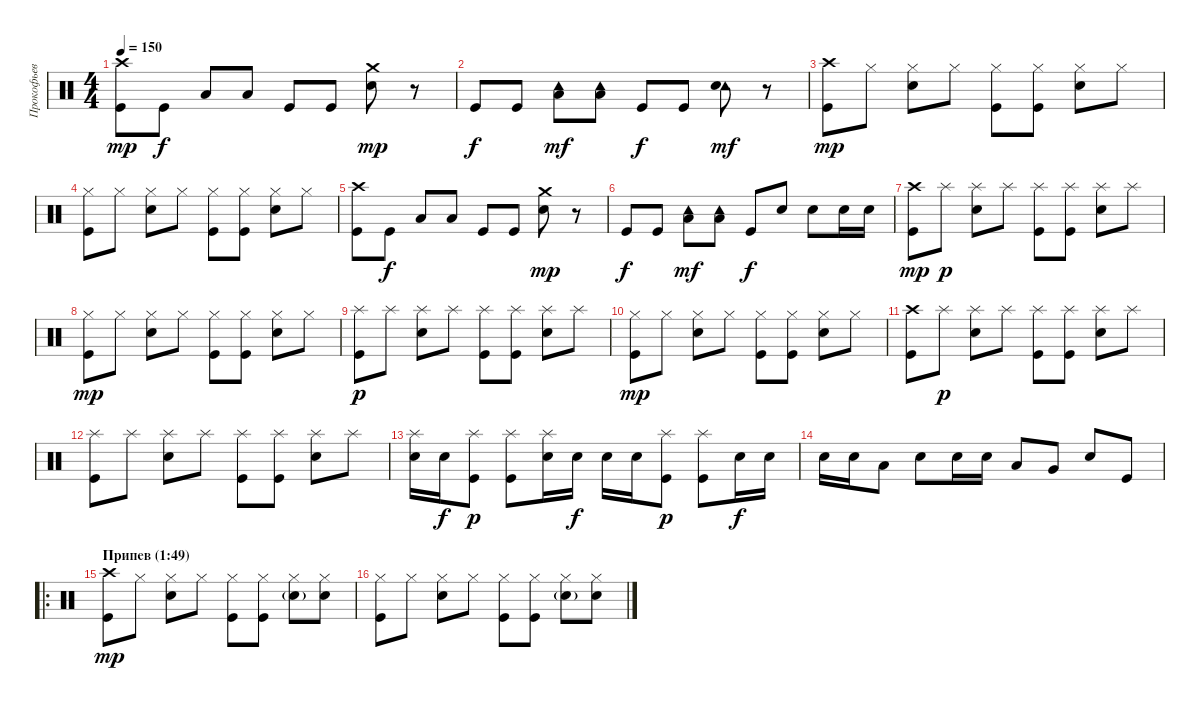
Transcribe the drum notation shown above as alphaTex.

\track ("Прокофьев (Барабаны)" "Прокофьев ") {instrument percussion}
\staff {score}
\articulation defaults
\ts (4 4)
\tempo 150
\clef neutral
\ks c
("Crash high (hit)" "Kick (hit)").8{dy mp} "Kick (hit)".8{dy f} "Low Tom (hit)".8 "Low Tom (hit)".8 "Kick (hit)".8 "Kick (hit)".8 ("Crash medium (hit)" "Electric Snare (hit)").8{dy mp} r.8 |
"Kick (hit)".8{dy f} "Kick (hit)".8 ("Tambourine (hit)" "Low Tom (hit)").8{dy mf} ("Tambourine (hit)" "Low Tom (hit)").8 "Kick (hit)".8{dy f} "Kick (hit)".8 ("Tambourine (hit)" "Electric Snare (hit)").8{dy mf} r.8 |
("Crash high (hit)" "Kick (hit)").8{dy mp} "Hi-Hat (closed)".8 ("Hi-Hat (closed)" "Electric Snare (hit)").8 "Hi-Hat (closed)".8 ("Hi-Hat (closed)" "Kick (hit)").8 ("Hi-Hat (closed)" "Kick (hit)").8 ("Hi-Hat (closed)" "Electric Snare (hit)").8 "Hi-Hat (closed)".8 |
("Hi-Hat (closed)" "Kick (hit)").8 "Hi-Hat (closed)".8 ("Hi-Hat (closed)" "Electric Snare (hit)").8 "Hi-Hat (closed)".8 ("Hi-Hat (closed)" "Kick (hit)").8 ("Hi-Hat (closed)" "Kick (hit)").8 ("Hi-Hat (closed)" "Electric Snare (hit)").8 "Hi-Hat (closed)".8 |
("Crash high (hit)" "Kick (hit)").8 "Kick (hit)".8{dy f} "Low Tom (hit)".8 "Low Tom (hit)".8 "Kick (hit)".8 "Kick (hit)".8 ("Crash medium (hit)" "Electric Snare (hit)").8{dy mp} r.8 |
"Kick (hit)".8{dy f} "Kick (hit)".8 ("Tambourine (hit)" "Low Tom (hit)").8{dy mf} ("Tambourine (hit)" "Low Tom (hit)").8 "Kick (hit)".8{dy f} "Electric Snare (hit)".8 "Electric Snare (hit)".8 "Electric Snare (hit)".16 "Electric Snare (hit)".16 |
("Crash high (hit)" "Kick (hit)").8{dy mp} "Splash (hit)".8{dy p} ("Splash (hit)" "Electric Snare (hit)").8 "Splash (hit)".8 ("Splash (hit)" "Kick (hit)").8 ("Splash (hit)" "Kick (hit)").8 ("Splash (hit)" "Electric Snare (hit)").8 "Splash (hit)".8 |
("Hi-Hat (closed)" "Kick (hit)").8{dy mp} "Hi-Hat (closed)".8 ("Hi-Hat (closed)" "Electric Snare (hit)").8 "Hi-Hat (closed)".8 ("Hi-Hat (closed)" "Kick (hit)").8 ("Hi-Hat (closed)" "Kick (hit)").8 ("Hi-Hat (closed)" "Electric Snare (hit)").8 "Hi-Hat (closed)".8 |
("Splash (hit)" "Kick (hit)").8{dy p} "Splash (hit)".8 ("Splash (hit)" "Electric Snare (hit)").8 "Splash (hit)".8 ("Splash (hit)" "Kick (hit)").8 ("Splash (hit)" "Kick (hit)").8 ("Splash (hit)" "Electric Snare (hit)").8 "Splash (hit)".8 |
("Hi-Hat (closed)" "Kick (hit)").8{dy mp} "Hi-Hat (closed)".8 ("Hi-Hat (closed)" "Electric Snare (hit)").8 "Hi-Hat (closed)".8 ("Hi-Hat (closed)" "Kick (hit)").8 ("Hi-Hat (closed)" "Kick (hit)").8 ("Hi-Hat (closed)" "Electric Snare (hit)").8 "Hi-Hat (closed)".8 |
("Crash high (hit)" "Kick (hit)").8 "Splash (hit)".8{dy p} ("Splash (hit)" "Electric Snare (hit)").8 "Splash (hit)".8 ("Splash (hit)" "Kick (hit)").8 ("Splash (hit)" "Kick (hit)").8 ("Splash (hit)" "Electric Snare (hit)").8 "Splash (hit)".8 |
("Splash (hit)" "Kick (hit)").8 "Splash (hit)".8 ("Splash (hit)" "Electric Snare (hit)").8 "Splash (hit)".8 ("Splash (hit)" "Kick (hit)").8 ("Splash (hit)" "Kick (hit)").8 ("Splash (hit)" "Electric Snare (hit)").8 "Splash (hit)".8 |
("Splash (hit)" "Electric Snare (hit)").16 "Electric Snare (hit)".16{dy f} ("Splash (hit)" "Kick (hit)").8{dy p} ("Splash (hit)" "Kick (hit)").8 ("Splash (hit)" "Electric Snare (hit)").16 "Electric Snare (hit)".16{dy f} "Electric Snare (hit)".16 "Electric Snare (hit)".16 ("Splash (hit)" "Kick (hit)").8{dy p} ("Splash (hit)" "Kick (hit)").8 "Electric Snare (hit)".16{dy f} "Electric Snare (hit)".16 |
"Electric Snare (hit)".16 "Electric Snare (hit)".16 "Low Tom (hit)".8 "Electric Snare (hit)".8 "Electric Snare (hit)".16 "Electric Snare (hit)".16 "Low Tom (hit)".8 "Very Low Tom (hit)".8 "Electric Snare (hit)".8 "Kick (hit)".8 |
\ro
\section ("" "Припев (1:49)")
("Crash high (hit)" "Kick (hit)").8{dy mp} "Hi-Hat (closed)".8 ("Hi-Hat (closed)" "Electric Snare (hit)").8 "Hi-Hat (closed)".8 ("Hi-Hat (closed)" "Kick (hit)").8 ("Hi-Hat (closed)" "Kick (hit)").8 ("Hi-Hat (closed)" "Electric Snare (hit)"{g}).8 ("Hi-Hat (closed)" "Electric Snare (hit)").8 |
("Hi-Hat (closed)" "Kick (hit)").8 "Hi-Hat (closed)".8 ("Hi-Hat (closed)" "Electric Snare (hit)").8 "Hi-Hat (closed)".8 ("Hi-Hat (closed)" "Kick (hit)").8 ("Hi-Hat (closed)" "Kick (hit)").8 ("Hi-Hat (closed)" "Electric Snare (hit)"{g}).8 ("Hi-Hat (closed)" "Electric Snare (hit)").8
